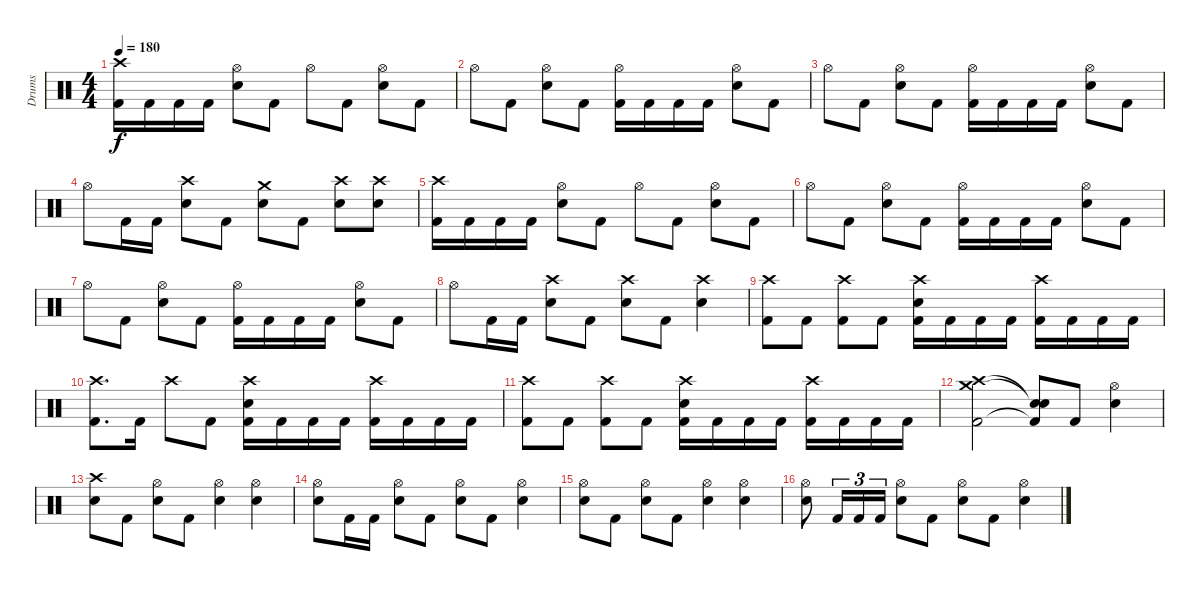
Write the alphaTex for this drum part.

\track ("Drums" "Drums") {instrument percussion}
\staff {score}
\articulation defaults
\ts (4 4)
\tempo 180
\clef neutral
\ks c
("Crash high (hit)" "Kick (hit) 2").16{dy f volume 16} "Kick (hit) 2".16 "Kick (hit) 2".16 "Kick (hit) 2".16 ("Hi-Hat (open)" "Electric Snare (hit)").8 "Kick (hit) 2".8 "Hi-Hat (open)".8 "Kick (hit) 2".8 ("Hi-Hat (open)" "Electric Snare (hit)").8 "Kick (hit) 2".8 |
"Hi-Hat (open)".8 "Kick (hit) 2".8 ("Hi-Hat (open)" "Electric Snare (hit)").8 "Kick (hit) 2".8 ("Hi-Hat (open)" "Kick (hit) 2").16 "Kick (hit) 2".16 "Kick (hit) 2".16 "Kick (hit) 2".16 ("Hi-Hat (open)" "Electric Snare (hit)").8 "Kick (hit) 2".8 |
"Hi-Hat (open)".8 "Kick (hit) 2".8 ("Hi-Hat (open)" "Electric Snare (hit)").8 "Kick (hit) 2".8 ("Hi-Hat (open)" "Kick (hit) 2").16 "Kick (hit) 2".16 "Kick (hit) 2".16 "Kick (hit) 2".16 ("Hi-Hat (open)" "Electric Snare (hit)").8 "Kick (hit) 2".8 |
"Hi-Hat (open)".8 "Kick (hit) 2".16 "Kick (hit) 2".16 ("Crash high (hit)" "Electric Snare (hit)").8 "Kick (hit) 2".8 ("Crash medium (hit)" "Electric Snare (hit)").8 "Kick (hit) 2".8 ("Crash high (hit)" "Electric Snare (hit)").8 ("Crash high (hit)" "Electric Snare (hit)").8 |
("Crash high (hit)" "Kick (hit) 2").16 "Kick (hit) 2".16 "Kick (hit) 2".16 "Kick (hit) 2".16 ("Hi-Hat (open)" "Electric Snare (hit)").8 "Kick (hit) 2".8 "Hi-Hat (open)".8 "Kick (hit) 2".8 ("Hi-Hat (open)" "Electric Snare (hit)").8 "Kick (hit) 2".8 |
"Hi-Hat (open)".8 "Kick (hit) 2".8 ("Hi-Hat (open)" "Electric Snare (hit)").8 "Kick (hit) 2".8 ("Hi-Hat (open)" "Kick (hit) 2").16 "Kick (hit) 2".16 "Kick (hit) 2".16 "Kick (hit) 2".16 ("Hi-Hat (open)" "Electric Snare (hit)").8 "Kick (hit) 2".8 |
"Hi-Hat (open)".8 "Kick (hit) 2".8 ("Hi-Hat (open)" "Electric Snare (hit)").8 "Kick (hit) 2".8 ("Hi-Hat (open)" "Kick (hit) 2").16 "Kick (hit) 2".16 "Kick (hit) 2".16 "Kick (hit) 2".16 ("Hi-Hat (open)" "Electric Snare (hit)").8 "Kick (hit) 2".8 |
"Hi-Hat (open)".8 "Kick (hit) 2".16 "Kick (hit) 2".16 ("Crash high (hit)" "Electric Snare (hit)").8 "Kick (hit) 2".8 ("Crash high (hit)" "Electric Snare (hit)").8 "Kick (hit) 2".8 ("Crash high (hit)" "Electric Snare (hit)").4 |
("Crash high (hit)" "Kick (hit) 2").8 "Kick (hit) 2".8 ("Crash high (hit)" "Kick (hit) 2").8 "Kick (hit) 2".8 ("Crash high (hit)" "Electric Snare (hit)" "Kick (hit) 2").16 "Kick (hit) 2".16 "Kick (hit) 2".16 "Kick (hit) 2".16 ("Crash high (hit)" "Kick (hit) 2").16 "Kick (hit) 2".16 "Kick (hit) 2".16 "Kick (hit) 2".16 |
("Crash high (hit)" "Kick (hit) 2").8{d} "Kick (hit) 2".16 "Crash high (hit)".8 "Kick (hit) 2".8 ("Crash high (hit)" "Electric Snare (hit)" "Kick (hit) 2").16 "Kick (hit) 2".16 "Kick (hit) 2".16 "Kick (hit) 2".16 ("Crash high (hit)" "Kick (hit) 2").16 "Kick (hit) 2".16 "Kick (hit) 2".16 "Kick (hit) 2".16 |
("Crash high (hit)" "Kick (hit) 2").8 "Kick (hit) 2".8 ("Crash high (hit)" "Kick (hit) 2").8 "Kick (hit) 2".8 ("Crash high (hit)" "Electric Snare (hit)" "Kick (hit) 2").16 "Kick (hit) 2".16 "Kick (hit) 2".16 "Kick (hit) 2".16 ("Crash high (hit)" "Kick (hit) 2").16 "Kick (hit) 2".16 "Kick (hit) 2".16 "Kick (hit) 2".16 |
("Crash high (hit)" "Crash medium (hit)" "Kick (hit) 2").2 ("Snare (hit)"{t} "Snare (hit)"{t} "Kick (hit) 2"{t}).8 "Kick (hit) 2".8 ("Hi-Hat (open)" "Electric Snare (hit)").4 |
("Crash high (hit)" "Electric Snare (hit)").8 "Kick (hit) 2".8 ("Hi-Hat (open)" "Electric Snare (hit)").8 "Kick (hit) 2".8 ("Hi-Hat (open)" "Electric Snare (hit)").4 ("Hi-Hat (open)" "Electric Snare (hit)").4 |
("Hi-Hat (open)" "Electric Snare (hit)").8 "Kick (hit) 2".16 "Kick (hit) 2".16 ("Hi-Hat (open)" "Electric Snare (hit)").8 "Kick (hit) 2".8 ("Hi-Hat (open)" "Electric Snare (hit)").8 "Kick (hit) 2".8 ("Hi-Hat (open)" "Electric Snare (hit)").4 |
("Hi-Hat (open)" "Electric Snare (hit)").8 "Kick (hit) 2".8 ("Hi-Hat (open)" "Electric Snare (hit)").8 "Kick (hit) 2".8 ("Hi-Hat (open)" "Electric Snare (hit)").4 ("Hi-Hat (open)" "Electric Snare (hit)").4 |
("Hi-Hat (open)" "Electric Snare (hit)").8 "Kick (hit) 2".16{tu (3 2)} "Kick (hit) 2".16{tu (3 2)} "Kick (hit) 2".16{tu (3 2)} ("Hi-Hat (open)" "Electric Snare (hit)").8 "Kick (hit) 2".8 ("Hi-Hat (open)" "Electric Snare (hit)").8 "Kick (hit) 2".8 ("Hi-Hat (open)" "Electric Snare (hit)").4
